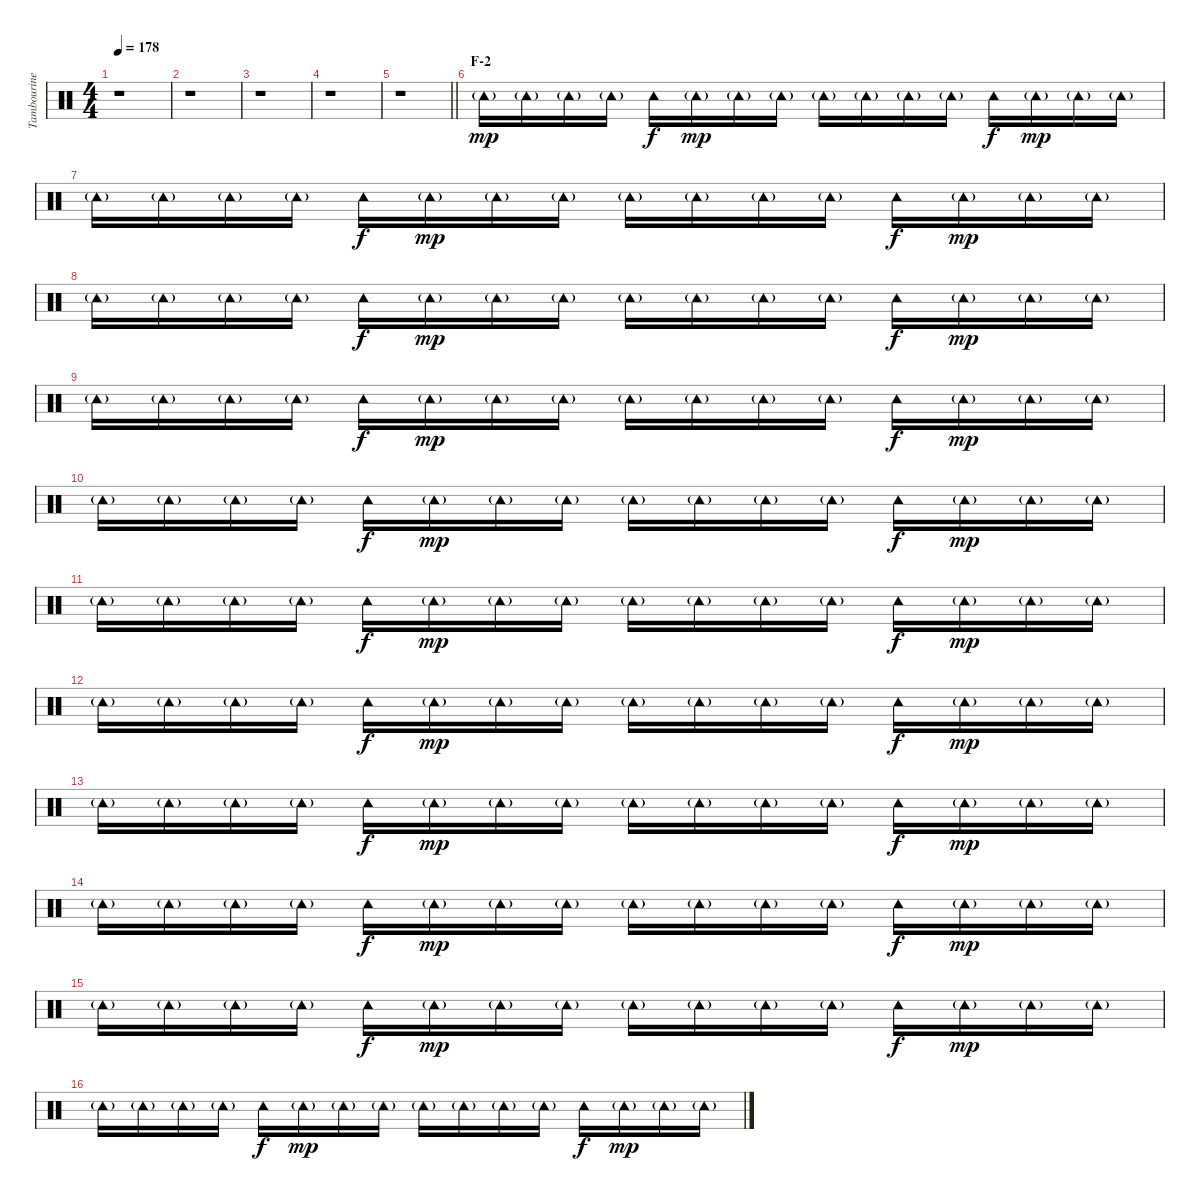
\track ("Tambourine" "Tambourine") {instrument percussion}
\staff {score}
\articulation defaults
\ts (4 4)
\tempo 178
\clef neutral
\ks c
r.1{dy mp} |
r.1 |
r.1 |
r.1 |
\barLineRight lightlight
r.1 |
\section ("" "F-2")
"Tambourine (hit)"{g}.16 "Tambourine (hit)"{g}.16 "Tambourine (hit)"{g}.16 "Tambourine (hit)"{g}.16 "Tambourine (hit)".16{dy f} "Tambourine (hit)"{g}.16{dy mp} "Tambourine (hit)"{g}.16 "Tambourine (hit)"{g}.16 "Tambourine (hit)"{g}.16 "Tambourine (hit)"{g}.16 "Tambourine (hit)"{g}.16 "Tambourine (hit)"{g}.16 "Tambourine (hit)".16{dy f} "Tambourine (hit)"{g}.16{dy mp} "Tambourine (hit)"{g}.16 "Tambourine (hit)"{g}.16 |
"Tambourine (hit)"{g}.16 "Tambourine (hit)"{g}.16 "Tambourine (hit)"{g}.16 "Tambourine (hit)"{g}.16 "Tambourine (hit)".16{dy f} "Tambourine (hit)"{g}.16{dy mp} "Tambourine (hit)"{g}.16 "Tambourine (hit)"{g}.16 "Tambourine (hit)"{g}.16 "Tambourine (hit)"{g}.16 "Tambourine (hit)"{g}.16 "Tambourine (hit)"{g}.16 "Tambourine (hit)".16{dy f} "Tambourine (hit)"{g}.16{dy mp} "Tambourine (hit)"{g}.16 "Tambourine (hit)"{g}.16 |
"Tambourine (hit)"{g}.16 "Tambourine (hit)"{g}.16 "Tambourine (hit)"{g}.16 "Tambourine (hit)"{g}.16 "Tambourine (hit)".16{dy f} "Tambourine (hit)"{g}.16{dy mp} "Tambourine (hit)"{g}.16 "Tambourine (hit)"{g}.16 "Tambourine (hit)"{g}.16 "Tambourine (hit)"{g}.16 "Tambourine (hit)"{g}.16 "Tambourine (hit)"{g}.16 "Tambourine (hit)".16{dy f} "Tambourine (hit)"{g}.16{dy mp} "Tambourine (hit)"{g}.16 "Tambourine (hit)"{g}.16 |
"Tambourine (hit)"{g}.16 "Tambourine (hit)"{g}.16 "Tambourine (hit)"{g}.16 "Tambourine (hit)"{g}.16 "Tambourine (hit)".16{dy f} "Tambourine (hit)"{g}.16{dy mp} "Tambourine (hit)"{g}.16 "Tambourine (hit)"{g}.16 "Tambourine (hit)"{g}.16 "Tambourine (hit)"{g}.16 "Tambourine (hit)"{g}.16 "Tambourine (hit)"{g}.16 "Tambourine (hit)".16{dy f} "Tambourine (hit)"{g}.16{dy mp} "Tambourine (hit)"{g}.16 "Tambourine (hit)"{g}.16 |
"Tambourine (hit)"{g}.16 "Tambourine (hit)"{g}.16 "Tambourine (hit)"{g}.16 "Tambourine (hit)"{g}.16 "Tambourine (hit)".16{dy f} "Tambourine (hit)"{g}.16{dy mp} "Tambourine (hit)"{g}.16 "Tambourine (hit)"{g}.16 "Tambourine (hit)"{g}.16 "Tambourine (hit)"{g}.16 "Tambourine (hit)"{g}.16 "Tambourine (hit)"{g}.16 "Tambourine (hit)".16{dy f} "Tambourine (hit)"{g}.16{dy mp} "Tambourine (hit)"{g}.16 "Tambourine (hit)"{g}.16 |
"Tambourine (hit)"{g}.16 "Tambourine (hit)"{g}.16 "Tambourine (hit)"{g}.16 "Tambourine (hit)"{g}.16 "Tambourine (hit)".16{dy f} "Tambourine (hit)"{g}.16{dy mp} "Tambourine (hit)"{g}.16 "Tambourine (hit)"{g}.16 "Tambourine (hit)"{g}.16 "Tambourine (hit)"{g}.16 "Tambourine (hit)"{g}.16 "Tambourine (hit)"{g}.16 "Tambourine (hit)".16{dy f} "Tambourine (hit)"{g}.16{dy mp} "Tambourine (hit)"{g}.16 "Tambourine (hit)"{g}.16 |
"Tambourine (hit)"{g}.16 "Tambourine (hit)"{g}.16 "Tambourine (hit)"{g}.16 "Tambourine (hit)"{g}.16 "Tambourine (hit)".16{dy f} "Tambourine (hit)"{g}.16{dy mp} "Tambourine (hit)"{g}.16 "Tambourine (hit)"{g}.16 "Tambourine (hit)"{g}.16 "Tambourine (hit)"{g}.16 "Tambourine (hit)"{g}.16 "Tambourine (hit)"{g}.16 "Tambourine (hit)".16{dy f} "Tambourine (hit)"{g}.16{dy mp} "Tambourine (hit)"{g}.16 "Tambourine (hit)"{g}.16 |
"Tambourine (hit)"{g}.16 "Tambourine (hit)"{g}.16 "Tambourine (hit)"{g}.16 "Tambourine (hit)"{g}.16 "Tambourine (hit)".16{dy f} "Tambourine (hit)"{g}.16{dy mp} "Tambourine (hit)"{g}.16 "Tambourine (hit)"{g}.16 "Tambourine (hit)"{g}.16 "Tambourine (hit)"{g}.16 "Tambourine (hit)"{g}.16 "Tambourine (hit)"{g}.16 "Tambourine (hit)".16{dy f} "Tambourine (hit)"{g}.16{dy mp} "Tambourine (hit)"{g}.16 "Tambourine (hit)"{g}.16 |
"Tambourine (hit)"{g}.16 "Tambourine (hit)"{g}.16 "Tambourine (hit)"{g}.16 "Tambourine (hit)"{g}.16 "Tambourine (hit)".16{dy f} "Tambourine (hit)"{g}.16{dy mp} "Tambourine (hit)"{g}.16 "Tambourine (hit)"{g}.16 "Tambourine (hit)"{g}.16 "Tambourine (hit)"{g}.16 "Tambourine (hit)"{g}.16 "Tambourine (hit)"{g}.16 "Tambourine (hit)".16{dy f} "Tambourine (hit)"{g}.16{dy mp} "Tambourine (hit)"{g}.16 "Tambourine (hit)"{g}.16 |
"Tambourine (hit)"{g}.16 "Tambourine (hit)"{g}.16 "Tambourine (hit)"{g}.16 "Tambourine (hit)"{g}.16 "Tambourine (hit)".16{dy f} "Tambourine (hit)"{g}.16{dy mp} "Tambourine (hit)"{g}.16 "Tambourine (hit)"{g}.16 "Tambourine (hit)"{g}.16 "Tambourine (hit)"{g}.16 "Tambourine (hit)"{g}.16 "Tambourine (hit)"{g}.16 "Tambourine (hit)".16{dy f} "Tambourine (hit)"{g}.16{dy mp} "Tambourine (hit)"{g}.16 "Tambourine (hit)"{g}.16 |
"Tambourine (hit)"{g}.16 "Tambourine (hit)"{g}.16 "Tambourine (hit)"{g}.16 "Tambourine (hit)"{g}.16 "Tambourine (hit)".16{dy f} "Tambourine (hit)"{g}.16{dy mp} "Tambourine (hit)"{g}.16 "Tambourine (hit)"{g}.16 "Tambourine (hit)"{g}.16 "Tambourine (hit)"{g}.16 "Tambourine (hit)"{g}.16 "Tambourine (hit)"{g}.16 "Tambourine (hit)".16{dy f} "Tambourine (hit)"{g}.16{dy mp} "Tambourine (hit)"{g}.16 "Tambourine (hit)"{g}.16
